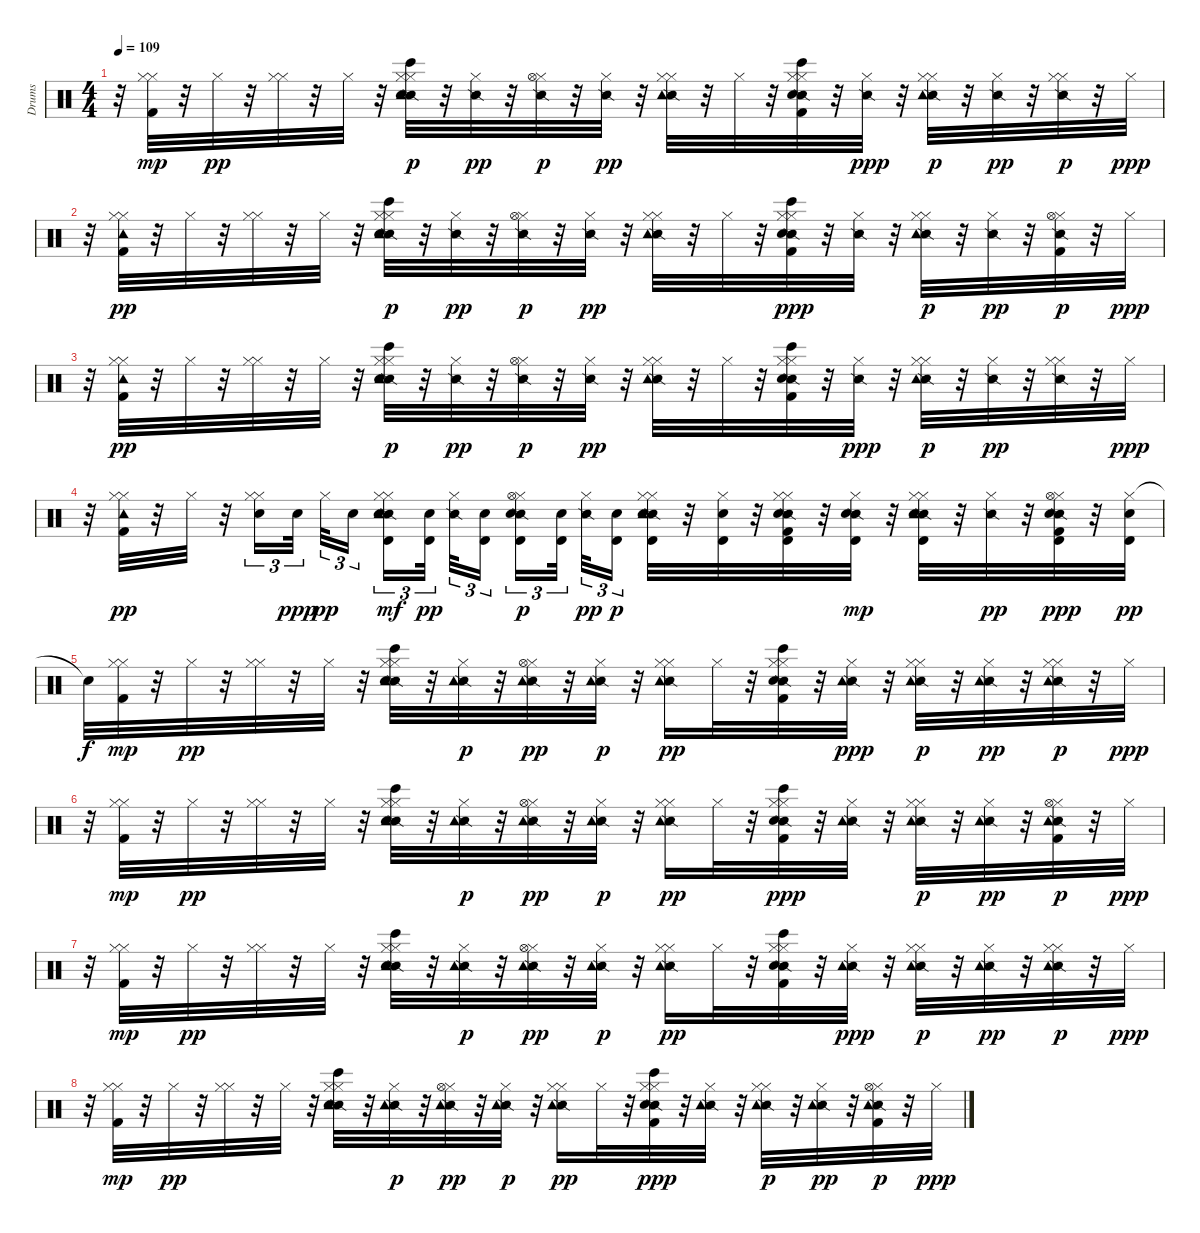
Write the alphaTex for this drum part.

\track ("Drums" "Drums") {instrument percussion}
\staff {score}
\articulation defaults
\ts (4 4)
\tempo 109
\clef neutral
\ks c
r.32{dy ppp} ("Kick (hit) 2" "Hi-Hat (closed)" "Hi-Hat (closed)").32{dy mp} r.32 "Hi-Hat (closed)".32{dy pp} r.32 ("Hi-Hat (closed)" "Hi-Hat (closed)").32 r.32 "Hi-Hat (closed)".32 r.32 ("Hi-Hat (closed)" "Bongo High (hit)" "Snare (side stick) 2" "Electric Snare (hit)" "Hi-Hat (closed)" "Tambourine (hit)").32{dy p} r.32 ("Hi-Hat (closed)" "Snare (side stick) 2").32{dy pp} r.32 ("Hi-Hat (closed)" "Snare (side stick) 2" "Hi-Hat (open)").32{dy p} r.32 ("Hi-Hat (closed)" "Snare (side stick) 2").32{dy pp} r.32 ("Hi-Hat (closed)" "Snare (side stick) 2" "Hi-Hat (closed)" "Tambourine (hit)").32 r.32 "Hi-Hat (closed)".32 r.32 ("Kick (hit) 2" "Hi-Hat (closed)" "Bongo High (hit)" "Snare (side stick) 2" "Electric Snare (hit)" "Hi-Hat (closed)").32 r.32 ("Hi-Hat (closed)" "Snare (side stick) 2").32{dy ppp} r.32 ("Hi-Hat (closed)" "Snare (side stick) 2" "Hi-Hat (closed)" "Tambourine (hit)").32{dy p} r.32 ("Hi-Hat (closed)" "Snare (side stick) 2").32{dy pp} r.32 ("Hi-Hat (closed)" "Snare (side stick) 2" "Hi-Hat (closed)").32{dy p} r.32 "Hi-Hat (closed)".32{dy ppp} |
r.32 ("Kick (hit) 2" "Hi-Hat (closed)" "Hi-Hat (closed)" "Tambourine (hit)").32{dy pp} r.32 "Hi-Hat (closed)".32 r.32 ("Hi-Hat (closed)" "Hi-Hat (closed)").32 r.32 "Hi-Hat (closed)".32 r.32 ("Hi-Hat (closed)" "Bongo High (hit)" "Snare (side stick) 2" "Electric Snare (hit)" "Hi-Hat (closed)" "Tambourine (hit)").32{dy p} r.32 ("Hi-Hat (closed)" "Snare (side stick) 2").32{dy pp} r.32 ("Hi-Hat (closed)" "Snare (side stick) 2" "Hi-Hat (open)").32{dy p} r.32 ("Hi-Hat (closed)" "Snare (side stick) 2").32{dy pp} r.32 ("Hi-Hat (closed)" "Snare (side stick) 2" "Hi-Hat (closed)" "Tambourine (hit)").32 r.32 "Hi-Hat (closed)".32 r.32 ("Kick (hit) 2" "Hi-Hat (closed)" "Bongo High (hit)" "Snare (side stick) 2" "Electric Snare (hit)" "Hi-Hat (closed)").32{dy ppp} r.32 ("Hi-Hat (closed)" "Snare (side stick) 2").32 r.32 ("Hi-Hat (closed)" "Snare (side stick) 2" "Hi-Hat (closed)" "Tambourine (hit)").32{dy p} r.32 ("Hi-Hat (closed)" "Snare (side stick) 2").32{dy pp} r.32 ("Kick (hit) 2" "Hi-Hat (closed)" "Snare (side stick) 2" "Hi-Hat (open)").32{dy p} r.32 "Hi-Hat (closed)".32{dy ppp} |
r.32 ("Kick (hit) 2" "Hi-Hat (closed)" "Hi-Hat (closed)" "Tambourine (hit)").32{dy pp} r.32 "Hi-Hat (closed)".32 r.32 ("Hi-Hat (closed)" "Hi-Hat (closed)").32 r.32 "Hi-Hat (closed)".32 r.32 ("Hi-Hat (closed)" "Bongo High (hit)" "Snare (side stick) 2" "Electric Snare (hit)" "Hi-Hat (closed)" "Tambourine (hit)").32{dy p} r.32 ("Hi-Hat (closed)" "Snare (side stick) 2").32{dy pp} r.32 ("Hi-Hat (closed)" "Snare (side stick) 2" "Hi-Hat (open)").32{dy p} r.32 ("Hi-Hat (closed)" "Snare (side stick) 2").32{dy pp} r.32 ("Hi-Hat (closed)" "Snare (side stick) 2" "Hi-Hat (closed)" "Tambourine (hit)").32 r.32 "Hi-Hat (closed)".32 r.32 ("Kick (hit) 2" "Hi-Hat (closed)" "Bongo High (hit)" "Snare (side stick) 2" "Electric Snare (hit)" "Hi-Hat (closed)").32 r.32 ("Hi-Hat (closed)" "Snare (side stick) 2").32{dy ppp} r.32 ("Hi-Hat (closed)" "Snare (side stick) 2" "Hi-Hat (closed)" "Tambourine (hit)").32{dy p} r.32 ("Hi-Hat (closed)" "Snare (side stick) 2").32{dy pp} r.32 ("Hi-Hat (closed)" "Snare (side stick) 2" "Hi-Hat (closed)").32 r.32 "Hi-Hat (closed)".32{dy ppp} |
r.32 ("Kick (hit) 2" "Hi-Hat (closed)" "Hi-Hat (closed)" "Tambourine (hit)").32{dy pp} r.32 "Hi-Hat (closed)".32 r.32 ("Hi-Hat (closed)" "Electric Snare (hit)" "Hi-Hat (closed)").16{tu (3 2)} "Electric Snare (hit)".32{tu (3 2) dy ppp beam splitsecondary} "Hi-Hat (closed)".32{tu (3 2) dy pp} "Electric Snare (hit)".16{tu (3 2)} ("Hi-Hat (closed)" "Snare (side stick) 2" "Electric Snare (hit)" "Hi-Hat (closed)" "Tambourine (hit)" "Timbale high (hit)").16{tu (3 2) dy mf} ("Electric Snare (hit)" "Timbale high (hit)").32{tu (3 2) dy pp beam splitsecondary} ("Hi-Hat (closed)" "Snare (side stick) 2").32{tu (3 2)} ("Electric Snare (hit)" "Timbale high (hit)").16{tu (3 2) beam splitsecondary} ("Hi-Hat (closed)" "Snare (side stick) 2" "Electric Snare (hit)" "Hi-Hat (open)" "Timbale high (hit)").16{tu (3 2) dy p} ("Electric Snare (hit)" "Timbale high (hit)").32{tu (3 2) beam splitsecondary} ("Hi-Hat (closed)" "Snare (side stick) 2").32{tu (3 2) dy pp} ("Electric Snare (hit)" "Timbale high (hit)").16{tu (3 2) dy p} ("Hi-Hat (closed)" "Snare (side stick) 2" "Electric Snare (hit)" "Hi-Hat (closed)" "Tambourine (hit)" "Timbale high (hit)").32 r.32 ("Hi-Hat (closed)" "Electric Snare (hit)" "Timbale high (hit)").32 r.32 ("Kick (hit) 2" "Hi-Hat (closed)" "Snare (side stick) 2" "Electric Snare (hit)" "Hi-Hat (closed)" "Timbale high (hit)").32 r.32 ("Hi-Hat (closed)" "Snare (side stick) 2" "Electric Snare (hit)" "Timbale high (hit)").32{dy mp} r.32 ("Hi-Hat (closed)" "Snare (side stick) 2" "Electric Snare (hit)" "Hi-Hat (closed)" "Tambourine (hit)" "Timbale high (hit)").32 r.32 ("Hi-Hat (closed)" "Snare (side stick) 2").32{dy pp} r.32 ("Kick (hit) 2" "Hi-Hat (closed)" "Snare (side stick) 2" "Electric Snare (hit)" "Hi-Hat (open)" "Timbale high (hit)").32{dy ppp} r.32 ("Hi-Hat (closed)" "Electric Snare (hit)" "Timbale high (hit)").32{dy pp} |
"Snare (hit)"{t}.32{dy f} ("Kick (hit) 2" "Hi-Hat (closed)" "Hi-Hat (closed)").32{dy mp} r.32 "Hi-Hat (closed)".32{dy pp} r.32 ("Hi-Hat (closed)" "Hi-Hat (closed)").32 r.32 "Hi-Hat (closed)".32 r.32 ("Hi-Hat (closed)" "Bongo High (hit)" "Snare (side stick) 2" "Electric Snare (hit)" "Hi-Hat (closed)" "Tambourine (hit)").32 r.32 ("Hi-Hat (closed)" "Snare (side stick) 2" "Tambourine (hit)").32{dy p} r.32 ("Hi-Hat (closed)" "Snare (side stick) 2" "Hi-Hat (open)" "Tambourine (hit)").32{dy pp} r.32 ("Hi-Hat (closed)" "Snare (side stick) 2" "Tambourine (hit)").32{dy p} r.32 ("Hi-Hat (closed)" "Snare (side stick) 2" "Hi-Hat (closed)" "Tambourine (hit)").16{dy pp} "Hi-Hat (closed)".32 r.32 ("Kick (hit) 2" "Hi-Hat (closed)" "Bongo High (hit)" "Snare (side stick) 2" "Electric Snare (hit)" "Hi-Hat (closed)").32 r.32 ("Hi-Hat (closed)" "Snare (side stick) 2" "Tambourine (hit)").32{dy ppp} r.32 ("Hi-Hat (closed)" "Snare (side stick) 2" "Hi-Hat (closed)" "Tambourine (hit)").32{dy p} r.32 ("Hi-Hat (closed)" "Snare (side stick) 2" "Tambourine (hit)").32{dy pp} r.32 ("Hi-Hat (closed)" "Snare (side stick) 2" "Hi-Hat (closed)" "Tambourine (hit)").32{dy p} r.32 "Hi-Hat (closed)".32{dy ppp} |
r.32 ("Kick (hit) 2" "Hi-Hat (closed)" "Hi-Hat (closed)").32{dy mp} r.32 "Hi-Hat (closed)".32{dy pp} r.32 ("Hi-Hat (closed)" "Hi-Hat (closed)").32 r.32 "Hi-Hat (closed)".32 r.32 ("Hi-Hat (closed)" "Bongo High (hit)" "Snare (side stick) 2" "Electric Snare (hit)" "Hi-Hat (closed)" "Tambourine (hit)").32 r.32 ("Hi-Hat (closed)" "Snare (side stick) 2" "Tambourine (hit)").32{dy p} r.32 ("Hi-Hat (closed)" "Snare (side stick) 2" "Hi-Hat (open)" "Tambourine (hit)").32{dy pp} r.32 ("Hi-Hat (closed)" "Snare (side stick) 2" "Tambourine (hit)").32{dy p} r.32 ("Hi-Hat (closed)" "Snare (side stick) 2" "Hi-Hat (closed)" "Tambourine (hit)").16{dy pp} "Hi-Hat (closed)".32 r.32 ("Kick (hit) 2" "Hi-Hat (closed)" "Bongo High (hit)" "Snare (side stick) 2" "Electric Snare (hit)" "Hi-Hat (closed)").32{dy ppp} r.32 ("Hi-Hat (closed)" "Snare (side stick) 2" "Tambourine (hit)").32 r.32 ("Hi-Hat (closed)" "Snare (side stick) 2" "Hi-Hat (closed)" "Tambourine (hit)").32{dy p} r.32 ("Hi-Hat (closed)" "Snare (side stick) 2" "Tambourine (hit)").32{dy pp} r.32 ("Kick (hit) 2" "Hi-Hat (closed)" "Snare (side stick) 2" "Hi-Hat (open)" "Tambourine (hit)").32{dy p} r.32 "Hi-Hat (closed)".32{dy ppp} |
r.32 ("Kick (hit) 2" "Hi-Hat (closed)" "Hi-Hat (closed)").32{dy mp} r.32 "Hi-Hat (closed)".32{dy pp} r.32 ("Hi-Hat (closed)" "Hi-Hat (closed)").32 r.32 "Hi-Hat (closed)".32 r.32 ("Hi-Hat (closed)" "Bongo High (hit)" "Snare (side stick) 2" "Electric Snare (hit)" "Hi-Hat (closed)" "Tambourine (hit)").32 r.32 ("Hi-Hat (closed)" "Snare (side stick) 2" "Tambourine (hit)").32{dy p} r.32 ("Hi-Hat (closed)" "Snare (side stick) 2" "Hi-Hat (open)" "Tambourine (hit)").32{dy pp} r.32 ("Hi-Hat (closed)" "Snare (side stick) 2" "Tambourine (hit)").32{dy p} r.32 ("Hi-Hat (closed)" "Snare (side stick) 2" "Hi-Hat (closed)" "Tambourine (hit)").16{dy pp} "Hi-Hat (closed)".32 r.32 ("Kick (hit) 2" "Hi-Hat (closed)" "Bongo High (hit)" "Snare (side stick) 2" "Electric Snare (hit)" "Hi-Hat (closed)").32 r.32 ("Hi-Hat (closed)" "Snare (side stick) 2" "Tambourine (hit)").32{dy ppp} r.32 ("Hi-Hat (closed)" "Snare (side stick) 2" "Hi-Hat (closed)" "Tambourine (hit)").32{dy p} r.32 ("Hi-Hat (closed)" "Snare (side stick) 2" "Tambourine (hit)").32{dy pp} r.32 ("Hi-Hat (closed)" "Snare (side stick) 2" "Hi-Hat (closed)" "Tambourine (hit)").32{dy p} r.32 "Hi-Hat (closed)".32{dy ppp} |
r.32 ("Kick (hit) 2" "Hi-Hat (closed)" "Hi-Hat (closed)").32{dy mp} r.32 "Hi-Hat (closed)".32{dy pp} r.32 ("Hi-Hat (closed)" "Hi-Hat (closed)").32 r.32 "Hi-Hat (closed)".32 r.32 ("Hi-Hat (closed)" "Bongo High (hit)" "Snare (side stick) 2" "Electric Snare (hit)" "Hi-Hat (closed)" "Tambourine (hit)").32 r.32 ("Hi-Hat (closed)" "Snare (side stick) 2" "Tambourine (hit)").32{dy p} r.32 ("Hi-Hat (closed)" "Snare (side stick) 2" "Hi-Hat (open)" "Tambourine (hit)").32{dy pp} r.32 ("Hi-Hat (closed)" "Snare (side stick) 2" "Tambourine (hit)").32{dy p} r.32 ("Hi-Hat (closed)" "Snare (side stick) 2" "Hi-Hat (closed)" "Tambourine (hit)").16{dy pp} "Hi-Hat (closed)".32 r.32 ("Kick (hit) 2" "Hi-Hat (closed)" "Bongo High (hit)" "Snare (side stick) 2" "Electric Snare (hit)" "Hi-Hat (closed)").32{dy ppp} r.32 ("Hi-Hat (closed)" "Snare (side stick) 2" "Tambourine (hit)").32 r.32 ("Hi-Hat (closed)" "Snare (side stick) 2" "Hi-Hat (closed)" "Tambourine (hit)").32{dy p} r.32 ("Hi-Hat (closed)" "Snare (side stick) 2" "Tambourine (hit)").32{dy pp} r.32 ("Kick (hit) 2" "Hi-Hat (closed)" "Snare (side stick) 2" "Hi-Hat (open)" "Tambourine (hit)").32{dy p} r.32 "Hi-Hat (closed)".32{dy ppp}
